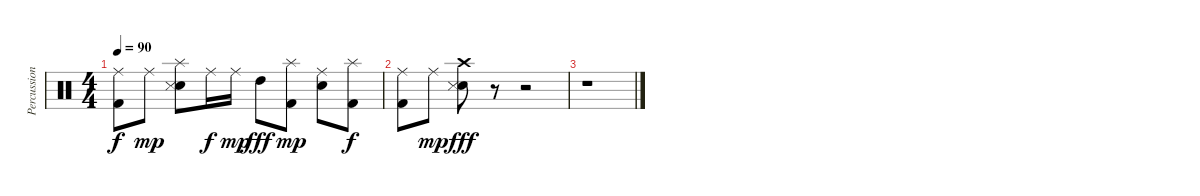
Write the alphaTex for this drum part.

\track ("Percussion" "Percussion") {instrument percussion}
\staff {score}
\articulation defaults
\ts (4 4)
\tempo 90
\clef neutral
\ks c
("Kick (hit) 2" "Ride (middle)").8{dy f} "Ride (middle)".8{dy mp} ("Electric Snare (hit)" "Snare (side stick) 3" "Splash (hit)").8 "Ride (middle)".16{dy f} "Ride (middle)".16{dy mp} "High Tom (hit)".8{dy fff} ("Kick (hit) 2" "Splash (hit)").8{dy mp} ("Electric Snare (hit)" "Ride (middle)").8 ("Kick (hit) 2" "Splash (hit)").8{dy f} |
("Kick (hit) 2" "Ride (middle)").8 "Ride (middle)".8{dy mp} ("Electric Snare (hit)" "Snare (side stick) 3" "Crash high (hit)").8{dy fff} r.8 r.2 |
r.1
